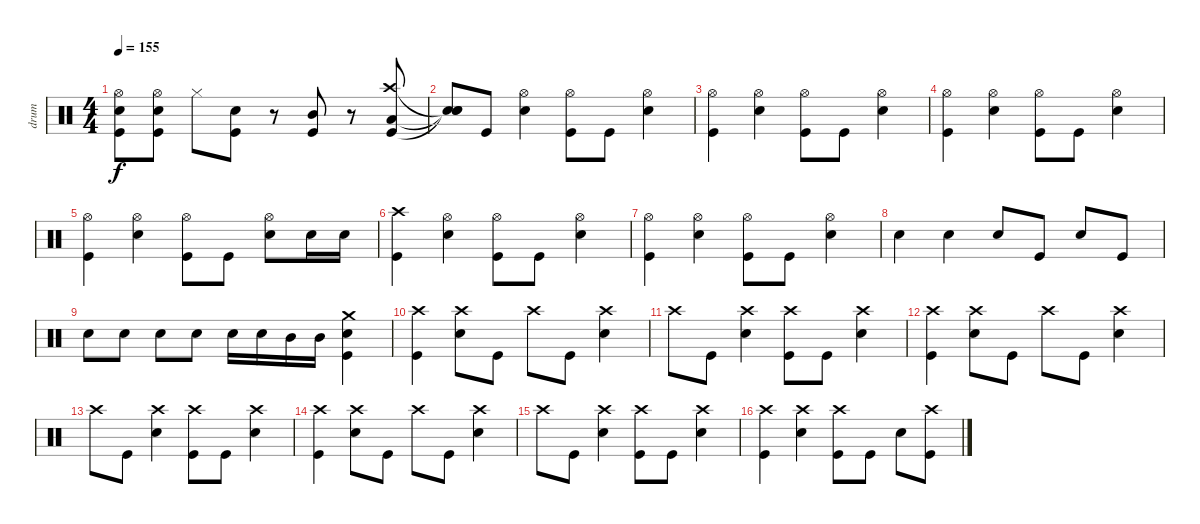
\track ("drum" "drum") {instrument percussion}
\staff {score}
\articulation defaults
\ts (4 4)
\tempo 155
\clef neutral
\ks c
("Hi-Hat (open)" "Snare (hit) 2" "Kick (hit)").8{dy f} ("Hi-Hat (open)" "Snare (hit) 2" "Kick (hit)").8 "Hi-Hat (closed)".8{volume 0} ("Snare (hit) 2" "Kick (hit)").8{volume 13} r.8 ("Mid Tom (hit)" "Kick (hit)").8 r.8 ("Crash high (hit)" "Low Tom (hit)" "Kick (hit)").8 |
("Snare (hit)"{t} "Snare (hit)"{t} "Snare (hit)"{t}).8 "Kick (hit)".8 ("Hi-Hat (open)" "Snare (hit) 2").4 ("Hi-Hat (open)" "Kick (hit)").8 "Kick (hit)".8 ("Hi-Hat (open)" "Snare (hit) 2").4 |
("Hi-Hat (open)" "Kick (hit)").4 ("Hi-Hat (open)" "Snare (hit) 2").4 ("Hi-Hat (open)" "Kick (hit)").8 "Kick (hit)".8 ("Hi-Hat (open)" "Snare (hit) 2").4 |
("Hi-Hat (open)" "Kick (hit)").4 ("Hi-Hat (open)" "Snare (hit) 2").4 ("Hi-Hat (open)" "Kick (hit)").8 "Kick (hit)".8 ("Hi-Hat (open)" "Snare (hit) 2").4 |
("Hi-Hat (open)" "Kick (hit)").4 ("Hi-Hat (open)" "Snare (hit) 2").4 ("Hi-Hat (open)" "Kick (hit)").8 "Kick (hit)".8 ("Hi-Hat (open)" "Snare (hit) 2").8 "Snare (hit) 2".16 "Snare (hit) 2".16 |
("Crash high (hit)" "Kick (hit)").4 ("Hi-Hat (open)" "Snare (hit) 2").4 ("Hi-Hat (open)" "Kick (hit)").8 "Kick (hit)".8 ("Hi-Hat (open)" "Snare (hit) 2").4 |
("Hi-Hat (open)" "Kick (hit)").4 ("Hi-Hat (open)" "Snare (hit) 2").4 ("Hi-Hat (open)" "Kick (hit)").8 "Kick (hit)".8 ("Hi-Hat (open)" "Snare (hit) 2").4 |
"Snare (hit) 2".4 "Snare (hit) 2".4 "Snare (hit) 2".8 "Kick (hit)".8 "Snare (hit) 2".8 "Kick (hit)".8 |
"Snare (hit) 2".8 "Snare (hit) 2".8 "Snare (hit) 2".8 "Snare (hit) 2".8 "Snare (hit) 2".16 "Snare (hit) 2".16 "Mid Tom (hit)".16 "Mid Tom (hit)".16 ("Crash medium (hit)" "Snare (hit) 2" "Kick (hit)").4 |
("Crash high (hit)" "Kick (hit)").4 ("Crash high (hit)" "Snare (hit) 2").8 "Kick (hit)".8 "Crash high (hit)".8 "Kick (hit)".8 ("Crash high (hit)" "Snare (hit) 2").4 |
"Crash high (hit)".8 "Kick (hit)".8 ("Crash high (hit)" "Snare (hit) 2").4 ("Crash high (hit)" "Kick (hit)").8 "Kick (hit)".8 ("Crash high (hit)" "Snare (hit) 2").4 |
("Crash high (hit)" "Kick (hit)").4 ("Crash high (hit)" "Snare (hit) 2").8 "Kick (hit)".8 "Crash high (hit)".8 "Kick (hit)".8 ("Crash high (hit)" "Snare (hit) 2").4 |
"Crash high (hit)".8 "Kick (hit)".8 ("Crash high (hit)" "Snare (hit) 2").4 ("Crash high (hit)" "Kick (hit)").8 "Kick (hit)".8 ("Crash high (hit)" "Snare (hit) 2").4 |
("Crash high (hit)" "Kick (hit)").4 ("Crash high (hit)" "Snare (hit) 2").8 "Kick (hit)".8 "Crash high (hit)".8 "Kick (hit)".8 ("Crash high (hit)" "Snare (hit) 2").4 |
"Crash high (hit)".8 "Kick (hit)".8 ("Crash high (hit)" "Snare (hit) 2").4 ("Crash high (hit)" "Kick (hit)").8 "Kick (hit)".8 ("Crash high (hit)" "Snare (hit) 2").4 |
("Crash high (hit)" "Kick (hit)").4 ("Crash high (hit)" "Snare (hit) 2").4 ("Crash high (hit)" "Kick (hit)").8 "Kick (hit)".8 "Snare (hit) 2".8 ("Crash high (hit)" "Kick (hit)").8
